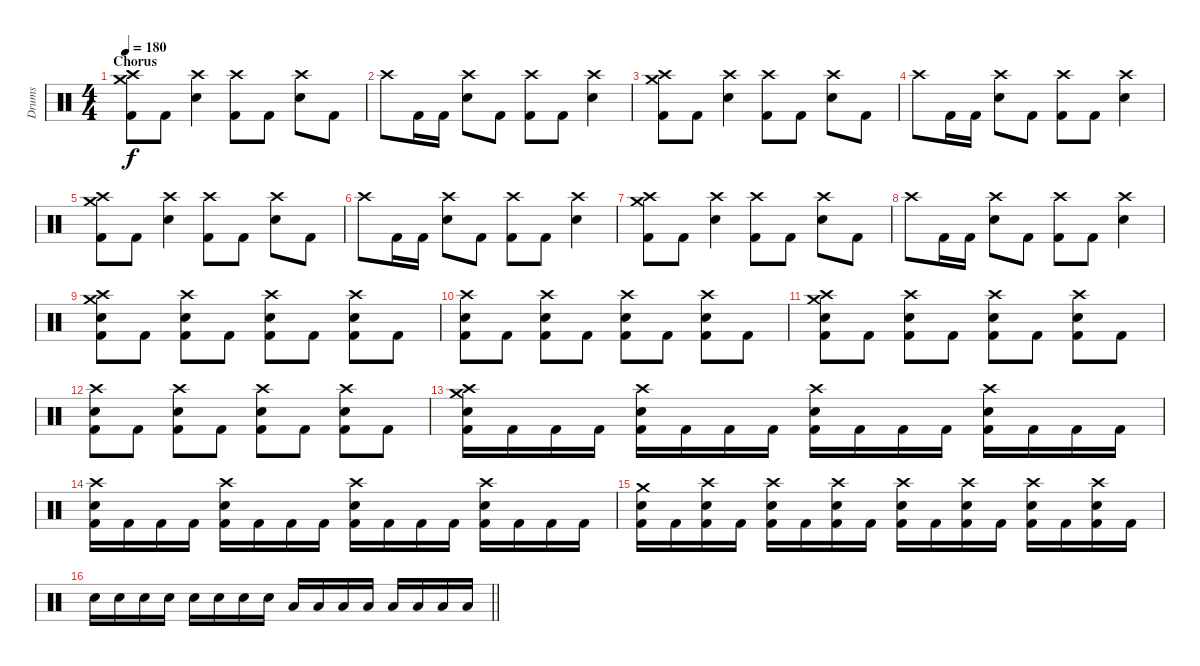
\track ("Drums" "Drums") {instrument percussion}
\staff {score}
\articulation defaults
\ts (4 4)
\section ("" "Chorus")
\tempo 180
\clef neutral
\ks c
("Crash high (hit)" "Crash medium (hit)" "Kick (hit) 2").8{dy f} "Kick (hit) 2".8 ("Crash high (hit)" "Electric Snare (hit)").4 ("Crash high (hit)" "Kick (hit) 2").8 "Kick (hit) 2".8 ("Crash high (hit)" "Electric Snare (hit)").8 "Kick (hit) 2".8 |
"Crash high (hit)".8 "Kick (hit) 2".16 "Kick (hit) 2".16 ("Crash high (hit)" "Electric Snare (hit)").8 "Kick (hit) 2".8 ("Crash high (hit)" "Kick (hit) 2").8 "Kick (hit) 2".8 ("Crash high (hit)" "Electric Snare (hit)").4 |
("Crash high (hit)" "Crash medium (hit)" "Kick (hit) 2").8 "Kick (hit) 2".8 ("Crash high (hit)" "Electric Snare (hit)").4 ("Crash high (hit)" "Kick (hit) 2").8 "Kick (hit) 2".8 ("Crash high (hit)" "Electric Snare (hit)").8 "Kick (hit) 2".8 |
"Crash high (hit)".8 "Kick (hit) 2".16 "Kick (hit) 2".16 ("Crash high (hit)" "Electric Snare (hit)").8 "Kick (hit) 2".8 ("Crash high (hit)" "Kick (hit) 2").8 "Kick (hit) 2".8 ("Crash high (hit)" "Electric Snare (hit)").4 |
("Crash high (hit)" "Crash medium (hit)" "Kick (hit) 2").8 "Kick (hit) 2".8 ("Crash high (hit)" "Electric Snare (hit)").4 ("Crash high (hit)" "Kick (hit) 2").8 "Kick (hit) 2".8 ("Crash high (hit)" "Electric Snare (hit)").8 "Kick (hit) 2".8 |
"Crash high (hit)".8 "Kick (hit) 2".16 "Kick (hit) 2".16 ("Crash high (hit)" "Electric Snare (hit)").8 "Kick (hit) 2".8 ("Crash high (hit)" "Kick (hit) 2").8 "Kick (hit) 2".8 ("Crash high (hit)" "Electric Snare (hit)").4 |
("Crash high (hit)" "Crash medium (hit)" "Kick (hit) 2").8 "Kick (hit) 2".8 ("Crash high (hit)" "Electric Snare (hit)").4 ("Crash high (hit)" "Kick (hit) 2").8 "Kick (hit) 2".8 ("Crash high (hit)" "Electric Snare (hit)").8 "Kick (hit) 2".8 |
"Crash high (hit)".8 "Kick (hit) 2".16 "Kick (hit) 2".16 ("Crash high (hit)" "Electric Snare (hit)").8 "Kick (hit) 2".8 ("Crash high (hit)" "Kick (hit) 2").8 "Kick (hit) 2".8 ("Crash high (hit)" "Electric Snare (hit)").4 |
("Crash high (hit)" "Crash medium (hit)" "Electric Snare (hit)" "Kick (hit) 2").8 "Kick (hit) 2".8 ("Crash high (hit)" "Electric Snare (hit)" "Kick (hit) 2").8 "Kick (hit) 2".8 ("Crash high (hit)" "Electric Snare (hit)" "Kick (hit) 2").8 "Kick (hit) 2".8 ("Crash high (hit)" "Electric Snare (hit)" "Kick (hit) 2").8 "Kick (hit) 2".8 |
("Crash high (hit)" "Electric Snare (hit)" "Kick (hit) 2").8 "Kick (hit) 2".8 ("Crash high (hit)" "Electric Snare (hit)" "Kick (hit) 2").8 "Kick (hit) 2".8 ("Crash high (hit)" "Electric Snare (hit)" "Kick (hit) 2").8 "Kick (hit) 2".8 ("Crash high (hit)" "Electric Snare (hit)" "Kick (hit) 2").8 "Kick (hit) 2".8 |
("Crash high (hit)" "Crash medium (hit)" "Electric Snare (hit)" "Kick (hit) 2").8 "Kick (hit) 2".8 ("Crash high (hit)" "Electric Snare (hit)" "Kick (hit) 2").8 "Kick (hit) 2".8 ("Crash high (hit)" "Electric Snare (hit)" "Kick (hit) 2").8 "Kick (hit) 2".8 ("Crash high (hit)" "Electric Snare (hit)" "Kick (hit) 2").8 "Kick (hit) 2".8 |
("Crash high (hit)" "Electric Snare (hit)" "Kick (hit) 2").8 "Kick (hit) 2".8 ("Crash high (hit)" "Electric Snare (hit)" "Kick (hit) 2").8 "Kick (hit) 2".8 ("Crash high (hit)" "Electric Snare (hit)" "Kick (hit) 2").8 "Kick (hit) 2".8 ("Crash high (hit)" "Electric Snare (hit)" "Kick (hit) 2").8 "Kick (hit) 2".8 |
("Crash high (hit)" "Crash medium (hit)" "Electric Snare (hit)" "Kick (hit) 2").16 "Kick (hit) 2".16 "Kick (hit) 2".16 "Kick (hit) 2".16 ("Crash high (hit)" "Electric Snare (hit)" "Kick (hit) 2").16 "Kick (hit) 2".16 "Kick (hit) 2".16 "Kick (hit) 2".16 ("Crash high (hit)" "Electric Snare (hit)" "Kick (hit) 2").16 "Kick (hit) 2".16 "Kick (hit) 2".16 "Kick (hit) 2".16 ("Crash high (hit)" "Electric Snare (hit)" "Kick (hit) 2").16 "Kick (hit) 2".16 "Kick (hit) 2".16 "Kick (hit) 2".16 |
("Crash high (hit)" "Electric Snare (hit)" "Kick (hit) 2").16 "Kick (hit) 2".16 "Kick (hit) 2".16 "Kick (hit) 2".16 ("Crash high (hit)" "Electric Snare (hit)" "Kick (hit) 2").16 "Kick (hit) 2".16 "Kick (hit) 2".16 "Kick (hit) 2".16 ("Crash high (hit)" "Electric Snare (hit)" "Kick (hit) 2").16 "Kick (hit) 2".16 "Kick (hit) 2".16 "Kick (hit) 2".16 ("Crash high (hit)" "Electric Snare (hit)" "Kick (hit) 2").16 "Kick (hit) 2".16 "Kick (hit) 2".16 "Kick (hit) 2".16 |
("Crash medium (hit)" "Electric Snare (hit)" "Kick (hit) 2").16 "Kick (hit) 2".16 ("Crash high (hit)" "Electric Snare (hit)" "Kick (hit) 2").16 "Kick (hit) 2".16 ("Crash high (hit)" "Electric Snare (hit)" "Kick (hit) 2").16 "Kick (hit) 2".16 ("Crash high (hit)" "Electric Snare (hit)" "Kick (hit) 2").16 "Kick (hit) 2".16 ("Crash high (hit)" "Electric Snare (hit)" "Kick (hit) 2").16 "Kick (hit) 2".16 ("Crash high (hit)" "Electric Snare (hit)" "Kick (hit) 2").16 "Kick (hit) 2".16 ("Crash high (hit)" "Electric Snare (hit)" "Kick (hit) 2").16 "Kick (hit) 2".16 ("Crash high (hit)" "Electric Snare (hit)" "Kick (hit) 2").16 "Kick (hit) 2".16 |
\barLineRight lightlight "Electric Snare (hit)".16 "Electric Snare (hit)".16 "Electric Snare (hit)".16 "Electric Snare (hit)".16 "Electric Snare (hit)".16 "Electric Snare (hit)".16 "Electric Snare (hit)".16 "Electric Snare (hit)".16 "Low Tom (hit)".16 "Low Tom (hit)".16 "Low Tom (hit)".16 "Low Tom (hit)".16 "Low Tom (hit)".16 "Low Tom (hit)".16 "Low Tom (hit)".16 "Low Tom (hit)".16
